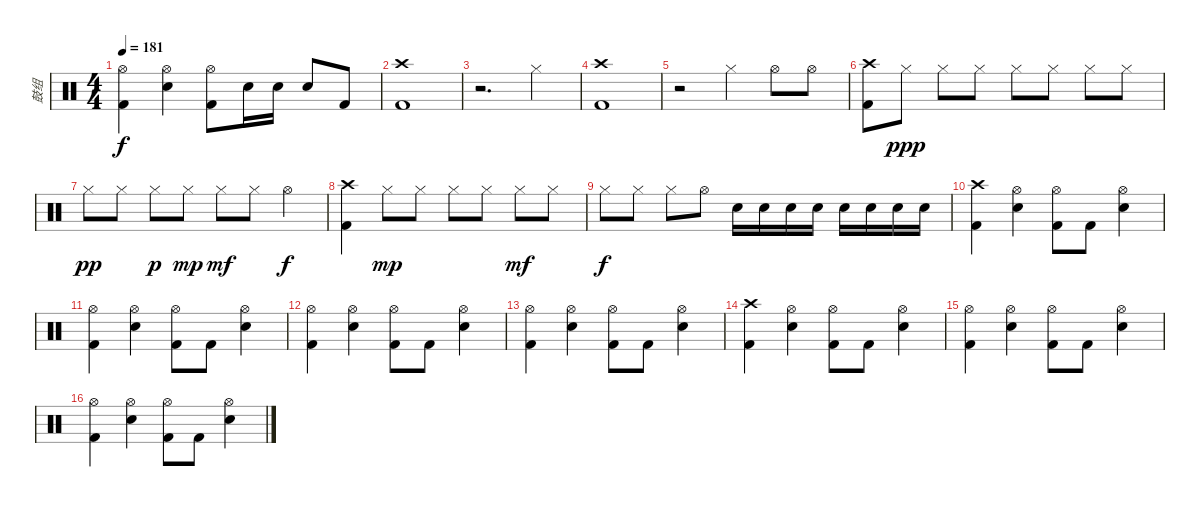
\track ("鼓组" "鼓组") {instrument percussion}
\staff {score}
\articulation defaults
\ts (4 4)
\tempo 181
\clef neutral
\ks c
("Hi-Hat (open)" "Kick (hit) 2").4{dy f} ("Hi-Hat (open)" "Snare (hit) 2").4 ("Hi-Hat (open)" "Kick (hit) 2").8 "Snare (hit) 2".16 "Snare (hit) 2".16 "Snare (hit) 2".8 "Kick (hit) 2".8 |
("Crash high (hit)" "Kick (hit) 2").1 |
r.2{d} "Hi-Hat (closed)".4 |
("Crash high (hit)" "Kick (hit) 2").1 |
r.2 "Hi-Hat (closed)".4 "Hi-Hat (open)".8 "Hi-Hat (open)".8 |
("Crash high (hit)" "Kick (hit) 2").8 "Hi-Hat (closed)".8{dy ppp} "Hi-Hat (closed)".8 "Hi-Hat (closed)".8 "Hi-Hat (closed)".8 "Hi-Hat (closed)".8 "Hi-Hat (closed)".8 "Hi-Hat (closed)".8 |
"Hi-Hat (closed)".8{dy pp} "Hi-Hat (closed)".8 "Hi-Hat (closed)".8{dy p} "Hi-Hat (closed)".8{dy mp} "Hi-Hat (closed)".8{dy mf} "Hi-Hat (closed)".8 "Hi-Hat (open)".4{dy f} |
("Crash high (hit)" "Kick (hit) 2").4 "Hi-Hat (closed)".8{dy mp} "Hi-Hat (closed)".8 "Hi-Hat (closed)".8 "Hi-Hat (closed)".8 "Hi-Hat (closed)".8{dy mf} "Hi-Hat (closed)".8 |
"Hi-Hat (closed)".8{dy f} "Hi-Hat (closed)".8 "Hi-Hat (closed)".8 "Hi-Hat (open)".8 "Snare (hit) 2".16 "Snare (hit) 2".16 "Snare (hit) 2".16 "Snare (hit) 2".16 "Snare (hit) 2".16 "Snare (hit) 2".16 "Snare (hit) 2".16 "Snare (hit) 2".16 |
("Crash high (hit)" "Kick (hit) 2").4 ("Hi-Hat (open)" "Snare (hit) 2").4 ("Hi-Hat (open)" "Kick (hit) 2").8 "Kick (hit) 2".8 ("Hi-Hat (open)" "Snare (hit) 2").4 |
("Hi-Hat (open)" "Kick (hit) 2").4 ("Hi-Hat (open)" "Snare (hit) 2").4 ("Hi-Hat (open)" "Kick (hit) 2").8 "Kick (hit) 2".8 ("Hi-Hat (open)" "Snare (hit) 2").4 |
("Hi-Hat (open)" "Kick (hit) 2").4 ("Hi-Hat (open)" "Snare (hit) 2").4 ("Hi-Hat (open)" "Kick (hit) 2").8 "Kick (hit) 2".8 ("Hi-Hat (open)" "Snare (hit) 2").4 |
("Hi-Hat (open)" "Kick (hit) 2").4 ("Hi-Hat (open)" "Snare (hit) 2").4 ("Hi-Hat (open)" "Kick (hit) 2").8 "Kick (hit) 2".8 ("Hi-Hat (open)" "Snare (hit) 2").4 |
("Crash high (hit)" "Kick (hit) 2").4 ("Hi-Hat (open)" "Snare (hit) 2").4 ("Hi-Hat (open)" "Kick (hit) 2").8 "Kick (hit) 2".8 ("Hi-Hat (open)" "Snare (hit) 2").4 |
("Hi-Hat (open)" "Kick (hit) 2").4 ("Hi-Hat (open)" "Snare (hit) 2").4 ("Hi-Hat (open)" "Kick (hit) 2").8 "Kick (hit) 2".8 ("Hi-Hat (open)" "Snare (hit) 2").4 |
("Hi-Hat (open)" "Kick (hit) 2").4 ("Hi-Hat (open)" "Snare (hit) 2").4 ("Hi-Hat (open)" "Kick (hit) 2").8 "Kick (hit) 2".8 ("Hi-Hat (open)" "Snare (hit) 2").4
